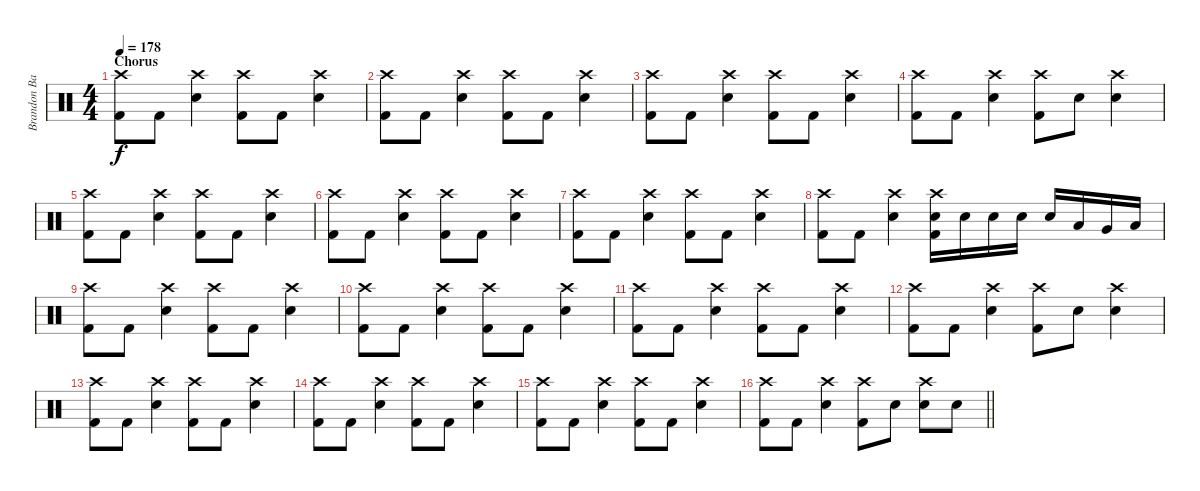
\track ("Brandon Barnes - Drums" "Brandon Ba") {instrument percussion}
\staff {score}
\articulation defaults
\ts (4 4)
\section ("" "Chorus")
\tempo 178
\clef neutral
\ks c
("Crash high (hit)" "Kick (hit) 2").8{dy f} "Kick (hit) 2".8 ("Snare (hit) 2" "Crash high (hit)").4 ("Crash high (hit)" "Kick (hit) 2").8 "Kick (hit) 2".8 ("Snare (hit) 2" "Crash high (hit)").4 |
("Crash high (hit)" "Kick (hit) 2").8 "Kick (hit) 2".8 ("Snare (hit) 2" "Crash high (hit)").4 ("Crash high (hit)" "Kick (hit) 2").8 "Kick (hit) 2".8 ("Snare (hit) 2" "Crash high (hit)").4 |
("Crash high (hit)" "Kick (hit) 2").8 "Kick (hit) 2".8 ("Snare (hit) 2" "Crash high (hit)").4 ("Crash high (hit)" "Kick (hit) 2").8 "Kick (hit) 2".8 ("Snare (hit) 2" "Crash high (hit)").4 |
("Crash high (hit)" "Kick (hit) 2").8 "Kick (hit) 2".8 ("Snare (hit) 2" "Crash high (hit)").4 ("Crash high (hit)" "Kick (hit) 2").8 "Snare (hit) 2".8 ("Snare (hit) 2" "Crash high (hit)").4 |
("Crash high (hit)" "Kick (hit) 2").8 "Kick (hit) 2".8 ("Snare (hit) 2" "Crash high (hit)").4 ("Crash high (hit)" "Kick (hit) 2").8 "Kick (hit) 2".8 ("Snare (hit) 2" "Crash high (hit)").4 |
("Crash high (hit)" "Kick (hit) 2").8 "Kick (hit) 2".8 ("Snare (hit) 2" "Crash high (hit)").4 ("Crash high (hit)" "Kick (hit) 2").8 "Kick (hit) 2".8 ("Snare (hit) 2" "Crash high (hit)").4 |
("Crash high (hit)" "Kick (hit) 2").8 "Kick (hit) 2".8 ("Snare (hit) 2" "Crash high (hit)").4 ("Crash high (hit)" "Kick (hit) 2").8 "Kick (hit) 2".8 ("Snare (hit) 2" "Crash high (hit)").4 |
("Crash high (hit)" "Kick (hit) 2").8 "Kick (hit) 2".8 ("Snare (hit) 2" "Crash high (hit)").4 ("Crash high (hit)" "Kick (hit) 2" "Snare (hit) 2").16 "Snare (hit) 2".16 "Snare (hit) 2".16 "Snare (hit) 2".16 "Snare (hit) 2".16 "Low Tom (hit)".16 "Very Low Tom (hit)".16 "Low Floor Tom (hit)".16 |
("Crash high (hit)" "Kick (hit) 2").8 "Kick (hit) 2".8 ("Snare (hit) 2" "Crash high (hit)").4 ("Crash high (hit)" "Kick (hit) 2").8 "Kick (hit) 2".8 ("Snare (hit) 2" "Crash high (hit)").4 |
("Crash high (hit)" "Kick (hit) 2").8 "Kick (hit) 2".8 ("Snare (hit) 2" "Crash high (hit)").4 ("Crash high (hit)" "Kick (hit) 2").8 "Kick (hit) 2".8 ("Snare (hit) 2" "Crash high (hit)").4 |
("Crash high (hit)" "Kick (hit) 2").8 "Kick (hit) 2".8 ("Snare (hit) 2" "Crash high (hit)").4 ("Crash high (hit)" "Kick (hit) 2").8 "Kick (hit) 2".8 ("Snare (hit) 2" "Crash high (hit)").4 |
("Crash high (hit)" "Kick (hit) 2").8 "Kick (hit) 2".8 ("Snare (hit) 2" "Crash high (hit)").4 ("Crash high (hit)" "Kick (hit) 2").8 "Snare (hit) 2".8 ("Snare (hit) 2" "Crash high (hit)").4 |
("Crash high (hit)" "Kick (hit) 2").8 "Kick (hit) 2".8 ("Snare (hit) 2" "Crash high (hit)").4 ("Crash high (hit)" "Kick (hit) 2").8 "Kick (hit) 2".8 ("Snare (hit) 2" "Crash high (hit)").4 |
("Crash high (hit)" "Kick (hit) 2").8 "Kick (hit) 2".8 ("Snare (hit) 2" "Crash high (hit)").4 ("Crash high (hit)" "Kick (hit) 2").8 "Kick (hit) 2".8 ("Snare (hit) 2" "Crash high (hit)").4 |
("Crash high (hit)" "Kick (hit) 2").8 "Kick (hit) 2".8 ("Snare (hit) 2" "Crash high (hit)").4 ("Crash high (hit)" "Kick (hit) 2").8 "Kick (hit) 2".8 ("Snare (hit) 2" "Crash high (hit)").4 |
\barLineRight lightlight
("Crash high (hit)" "Kick (hit) 2").8 "Kick (hit) 2".8 ("Snare (hit) 2" "Crash high (hit)").4 ("Crash high (hit)" "Kick (hit) 2").8 "Snare (hit) 2".8 ("Snare (hit) 2" "Crash high (hit)").8 "Snare (hit) 2".8
